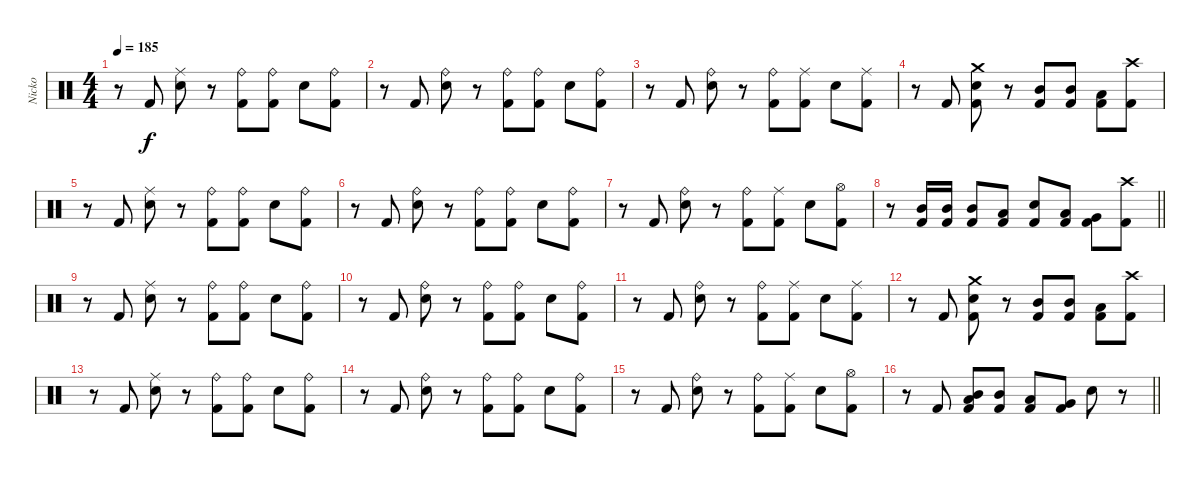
\track ("Nicko" "Nicko") {instrument percussion}
\staff {score}
\articulation defaults
\ts (4 4)
\tempo 185
\clef neutral
\ks c
r.8{dy f} "Kick (hit) 2".8 ("Ride (middle)" "Snare (hit) 2").8 r.8 ("Ride (bell)" "Kick (hit) 2").8 ("Ride (bell)" "Kick (hit) 2").8 "Snare (hit) 2".8 ("Ride (bell)" "Kick (hit) 2").8 |
r.8 "Kick (hit) 2".8 ("Ride (bell)" "Snare (hit) 2").8 r.8 ("Ride (bell)" "Kick (hit) 2").8 ("Ride (bell)" "Kick (hit) 2").8 "Snare (hit) 2".8 ("Ride (bell)" "Kick (hit) 2").8 |
r.8 "Kick (hit) 2".8 ("Ride (bell)" "Snare (hit) 2").8 r.8 ("Ride (bell)" "Kick (hit) 2").8 ("Ride (middle)" "Kick (hit) 2").8 "Snare (hit) 2".8 ("Ride (middle)" "Kick (hit) 2").8 |
r.8 "Kick (hit) 2".8 ("Crash medium (hit)" "Snare (hit) 2" "Kick (hit) 2").8 r.8 ("Mid Tom (hit)" "Kick (hit) 2").8 ("Mid Tom (hit)" "Kick (hit) 2").8 ("Low Tom (hit)" "Kick (hit) 2").8 ("Crash high (hit)" "Kick (hit) 2").8 |
r.8 "Kick (hit) 2".8 ("Ride (middle)" "Snare (hit) 2").8 r.8 ("Ride (bell)" "Kick (hit) 2").8 ("Ride (bell)" "Kick (hit) 2").8 "Snare (hit) 2".8 ("Ride (bell)" "Kick (hit) 2").8 |
r.8 "Kick (hit) 2".8 ("Ride (bell)" "Snare (hit) 2").8 r.8 ("Ride (bell)" "Kick (hit) 2").8 ("Ride (bell)" "Kick (hit) 2").8 "Snare (hit) 2".8 ("Ride (bell)" "Kick (hit) 2").8 |
r.8 "Kick (hit) 2".8 ("Ride (bell)" "Snare (hit) 2").8 r.8 ("Ride (bell)" "Kick (hit) 2").8 ("Ride (middle)" "Kick (hit) 2").8 "Snare (hit) 2".8 ("Hi-Hat (open)" "Kick (hit) 2").8 |
\barLineRight lightlight
r.8 ("Mid Tom (hit)" "Kick (hit) 2").16 ("Mid Tom (hit)" "Kick (hit) 2").16 ("Mid Tom (hit)" "Kick (hit) 2").8 ("Low Tom (hit)" "Kick (hit) 2").8 ("Snare (hit) 2" "Kick (hit) 2").8 ("Low Tom (hit)" "Kick (hit) 2").8 ("Very Low Tom (hit)" "Kick (hit) 2").8 ("Crash high (hit)" "Kick (hit) 2").8 |
r.8 "Kick (hit) 2".8 ("Ride (middle)" "Snare (hit) 2").8 r.8 ("Ride (bell)" "Kick (hit) 2").8 ("Ride (bell)" "Kick (hit) 2").8 "Snare (hit) 2".8 ("Ride (bell)" "Kick (hit) 2").8 |
r.8 "Kick (hit) 2".8 ("Ride (bell)" "Snare (hit) 2").8 r.8 ("Ride (bell)" "Kick (hit) 2").8 ("Ride (bell)" "Kick (hit) 2").8 "Snare (hit) 2".8 ("Ride (bell)" "Kick (hit) 2").8 |
r.8 "Kick (hit) 2".8 ("Ride (bell)" "Snare (hit) 2").8 r.8 ("Ride (bell)" "Kick (hit) 2").8 ("Ride (middle)" "Kick (hit) 2").8 "Snare (hit) 2".8 ("Ride (middle)" "Kick (hit) 2").8 |
r.8 "Kick (hit) 2".8 ("Crash medium (hit)" "Snare (hit) 2" "Kick (hit) 2").8 r.8 ("Mid Tom (hit)" "Kick (hit) 2").8 ("Mid Tom (hit)" "Kick (hit) 2").8 ("Low Tom (hit)" "Kick (hit) 2").8 ("Crash high (hit)" "Kick (hit) 2").8 |
r.8 "Kick (hit) 2".8 ("Ride (middle)" "Snare (hit) 2").8 r.8 ("Ride (bell)" "Kick (hit) 2").8 ("Ride (bell)" "Kick (hit) 2").8 "Snare (hit) 2".8 ("Ride (bell)" "Kick (hit) 2").8 |
r.8 "Kick (hit) 2".8 ("Ride (bell)" "Snare (hit) 2").8 r.8 ("Ride (bell)" "Kick (hit) 2").8 ("Ride (bell)" "Kick (hit) 2").8 "Snare (hit) 2".8 ("Ride (bell)" "Kick (hit) 2").8 |
r.8 "Kick (hit) 2".8 ("Ride (bell)" "Snare (hit) 2").8 r.8 ("Ride (bell)" "Kick (hit) 2").8 ("Ride (middle)" "Kick (hit) 2").8 "Snare (hit) 2".8 ("Hi-Hat (open)" "Kick (hit) 2").8 |
\barLineRight lightlight
r.8 "Kick (hit) 2".8 ("Mid Tom (hit)" "Low Floor Tom (hit)" "Kick (hit) 2").8 ("Mid Tom (hit)" "Kick (hit) 2").8 ("Low Tom (hit)" "Kick (hit) 2").8 ("Very Low Tom (hit)" "Kick (hit) 2").8 "Snare (hit) 2".8 r.8
